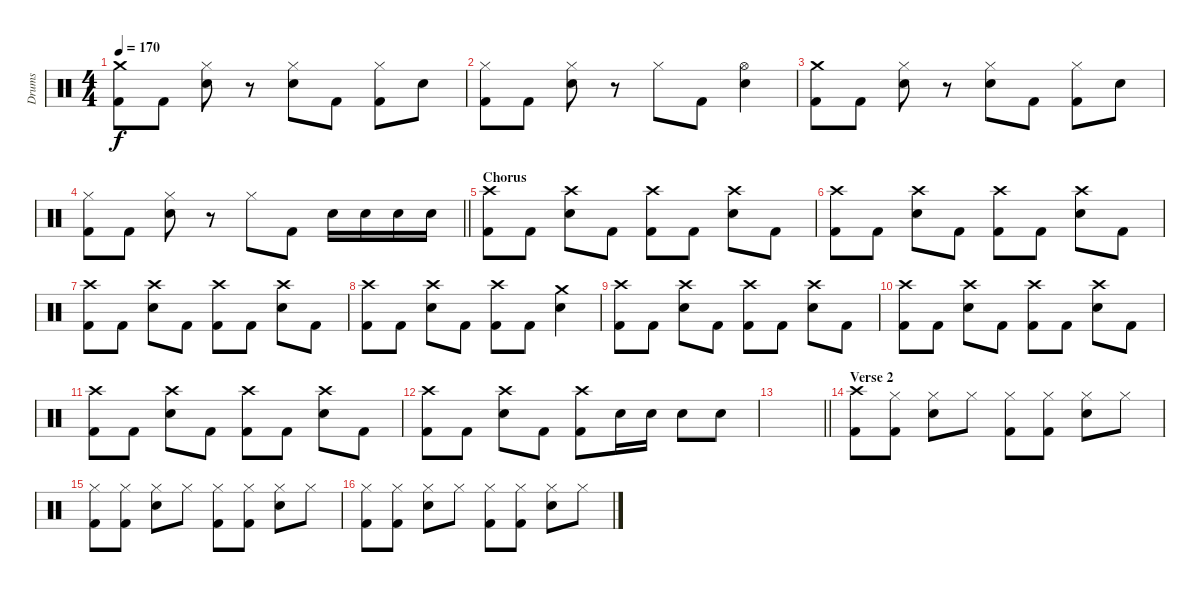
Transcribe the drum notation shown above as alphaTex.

\track ("Drums" "Drums") {instrument percussion}
\staff {score}
\articulation defaults
\ts (4 4)
\tempo 170
\clef neutral
\ks c
("Crash medium (hit)" "Kick (hit) 2").8{dy f} "Kick (hit) 2".8 ("Hi-Hat (closed)" "Snare (hit) 2").8 r.8 ("Hi-Hat (closed)" "Snare (hit) 2").8 "Kick (hit) 2".8 ("Hi-Hat (closed)" "Kick (hit) 2").8 "Snare (hit) 2".8 |
("Hi-Hat (closed)" "Kick (hit) 2").8 "Kick (hit) 2".8 ("Hi-Hat (closed)" "Snare (hit) 2").8 r.8 "Hi-Hat (closed)".8 "Kick (hit) 2".8 ("Hi-Hat (open)" "Snare (hit) 2").4 |
("Crash medium (hit)" "Kick (hit) 2").8 "Kick (hit) 2".8 ("Hi-Hat (closed)" "Snare (hit) 2").8 r.8 ("Hi-Hat (closed)" "Snare (hit) 2").8 "Kick (hit) 2".8 ("Hi-Hat (closed)" "Kick (hit) 2").8 "Snare (hit) 2".8 |
\barLineRight lightlight
("Hi-Hat (closed)" "Kick (hit) 2").8 "Kick (hit) 2".8 ("Hi-Hat (closed)" "Snare (hit) 2").8 r.8 "Hi-Hat (closed)".8 "Kick (hit) 2".8 "Snare (hit) 2".16 "Snare (hit) 2".16 "Snare (hit) 2".16 "Snare (hit) 2".16 |
\section ("" "Chorus")
("Crash high (hit)" "Kick (hit) 2").8 "Kick (hit) 2".8 ("Crash high (hit)" "Snare (hit) 2").8 "Kick (hit) 2".8 ("Crash high (hit)" "Kick (hit) 2").8 "Kick (hit) 2".8 ("Crash high (hit)" "Snare (hit) 2").8 "Kick (hit) 2".8 |
("Crash high (hit)" "Kick (hit) 2").8 "Kick (hit) 2".8 ("Crash high (hit)" "Snare (hit) 2").8 "Kick (hit) 2".8 ("Crash high (hit)" "Kick (hit) 2").8 "Kick (hit) 2".8 ("Crash high (hit)" "Snare (hit) 2").8 "Kick (hit) 2".8 |
("Crash high (hit)" "Kick (hit) 2").8 "Kick (hit) 2".8 ("Crash high (hit)" "Snare (hit) 2").8 "Kick (hit) 2".8 ("Crash high (hit)" "Kick (hit) 2").8 "Kick (hit) 2".8 ("Crash high (hit)" "Snare (hit) 2").8 "Kick (hit) 2".8 |
("Crash high (hit)" "Kick (hit) 2").8 "Kick (hit) 2".8 ("Crash high (hit)" "Snare (hit) 2").8 "Kick (hit) 2".8 ("Crash high (hit)" "Kick (hit) 2").8 "Kick (hit) 2".8 ("Crash medium (hit)" "Snare (hit) 2").4 |
("Crash high (hit)" "Kick (hit) 2").8 "Kick (hit) 2".8 ("Crash high (hit)" "Snare (hit) 2").8 "Kick (hit) 2".8 ("Crash high (hit)" "Kick (hit) 2").8 "Kick (hit) 2".8 ("Crash high (hit)" "Snare (hit) 2").8 "Kick (hit) 2".8 |
("Crash high (hit)" "Kick (hit) 2").8 "Kick (hit) 2".8 ("Crash high (hit)" "Snare (hit) 2").8 "Kick (hit) 2".8 ("Crash high (hit)" "Kick (hit) 2").8 "Kick (hit) 2".8 ("Crash high (hit)" "Snare (hit) 2").8 "Kick (hit) 2".8 |
("Crash high (hit)" "Kick (hit) 2").8 "Kick (hit) 2".8 ("Crash high (hit)" "Snare (hit) 2").8 "Kick (hit) 2".8 ("Crash high (hit)" "Kick (hit) 2").8 "Kick (hit) 2".8 ("Crash high (hit)" "Snare (hit) 2").8 "Kick (hit) 2".8 |
("Crash high (hit)" "Kick (hit) 2").8 "Kick (hit) 2".8 ("Crash high (hit)" "Snare (hit) 2").8 "Kick (hit) 2".8 ("Crash high (hit)" "Kick (hit) 2").8 "Snare (hit) 2".16 "Snare (hit) 2".16 "Snare (hit) 2".8 "Snare (hit) 2".8 |
\barLineRight lightlight
|
\section ("" "Verse 2")
("Crash high (hit)" "Kick (hit) 2").8 ("Hi-Hat (closed)" "Kick (hit) 2").8 ("Hi-Hat (closed)" "Snare (hit) 2").8 "Hi-Hat (closed)".8 ("Hi-Hat (closed)" "Kick (hit) 2").8 ("Hi-Hat (closed)" "Kick (hit) 2").8 ("Hi-Hat (closed)" "Snare (hit) 2").8 "Hi-Hat (closed)".8 |
("Hi-Hat (closed)" "Kick (hit) 2").8 ("Hi-Hat (closed)" "Kick (hit) 2").8 ("Hi-Hat (closed)" "Snare (hit) 2").8 "Hi-Hat (closed)".8 ("Hi-Hat (closed)" "Kick (hit) 2").8 ("Hi-Hat (closed)" "Kick (hit) 2").8 ("Hi-Hat (closed)" "Snare (hit) 2").8 "Hi-Hat (closed)".8 |
("Hi-Hat (closed)" "Kick (hit) 2").8 ("Hi-Hat (closed)" "Kick (hit) 2").8 ("Hi-Hat (closed)" "Snare (hit) 2").8 "Hi-Hat (closed)".8 ("Hi-Hat (closed)" "Kick (hit) 2").8 ("Hi-Hat (closed)" "Kick (hit) 2").8 ("Hi-Hat (closed)" "Snare (hit) 2").8 "Hi-Hat (closed)".8
